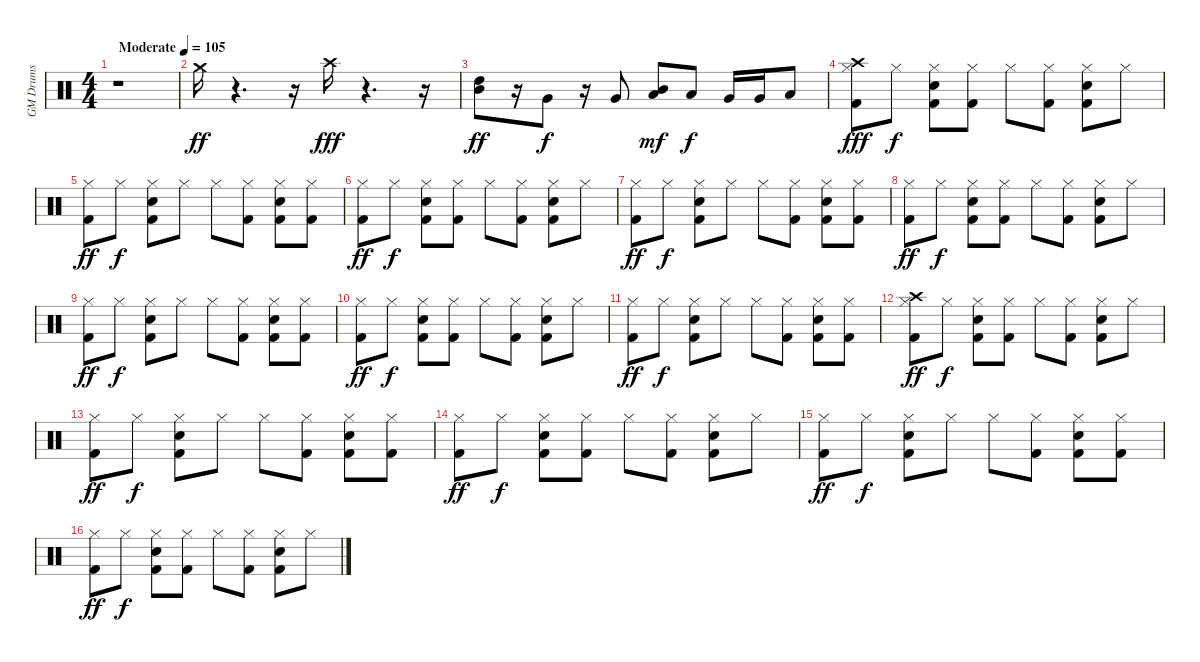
\track ("GM Drums" "GM Drums") {instrument percussion}
\staff {score}
\articulation defaults
\ts (4 4)
\tempo (105 "Moderate")
\clef neutral
\ks c
r.1{dy ff} |
"Crash medium (hit)".16 r.4{d} r.16 "Crash high (hit)".16{dy fff} r.4{d} r.16 |
("Mid Tom (hit)" "High Tom (hit)").8{dy ff} r.16 "Very Low Tom (hit)".8{dy f} r.16 "Very Low Tom (hit)".8 ("Low Tom (hit)" "Mid Tom (hit)").8{dy mf} "Low Tom (hit)".8{dy f} "Very Low Tom (hit)".16 "Very Low Tom (hit)".16 "Low Floor Tom (hit)".8 |
("Kick (hit) 2" "Hi-Hat (closed)" "Crash high (hit)").8{dy fff} "Hi-Hat (closed)".8{dy f} ("Kick (hit) 2" "Electric Snare (hit)" "Hi-Hat (closed)").8 ("Kick (hit) 2" "Hi-Hat (closed)").8 "Hi-Hat (closed)".8 ("Kick (hit) 2" "Hi-Hat (closed)").8 ("Kick (hit) 2" "Electric Snare (hit)" "Hi-Hat (closed)").8 "Hi-Hat (closed)".8 |
("Kick (hit) 2" "Hi-Hat (closed)").8{dy ff} "Hi-Hat (closed)".8{dy f} ("Kick (hit) 2" "Electric Snare (hit)" "Hi-Hat (closed)").8 "Hi-Hat (closed)".8 "Hi-Hat (closed)".8 ("Kick (hit) 2" "Hi-Hat (closed)").8 ("Kick (hit) 2" "Electric Snare (hit)" "Hi-Hat (closed)").8 ("Kick (hit) 2" "Hi-Hat (closed)").8 |
("Kick (hit) 2" "Hi-Hat (closed)").8{dy ff} "Hi-Hat (closed)".8{dy f} ("Kick (hit) 2" "Electric Snare (hit)" "Hi-Hat (closed)").8 ("Kick (hit) 2" "Hi-Hat (closed)").8 "Hi-Hat (closed)".8 ("Kick (hit) 2" "Hi-Hat (closed)").8 ("Kick (hit) 2" "Electric Snare (hit)" "Hi-Hat (closed)").8 "Hi-Hat (closed)".8 |
("Kick (hit) 2" "Hi-Hat (closed)").8{dy ff} "Hi-Hat (closed)".8{dy f} ("Kick (hit) 2" "Electric Snare (hit)" "Hi-Hat (closed)").8 "Hi-Hat (closed)".8 "Hi-Hat (closed)".8 ("Kick (hit) 2" "Hi-Hat (closed)").8 ("Kick (hit) 2" "Electric Snare (hit)" "Hi-Hat (closed)").8 ("Kick (hit) 2" "Hi-Hat (closed)").8 |
("Kick (hit) 2" "Hi-Hat (closed)").8{dy ff} "Hi-Hat (closed)".8{dy f} ("Kick (hit) 2" "Electric Snare (hit)" "Hi-Hat (closed)").8 ("Kick (hit) 2" "Hi-Hat (closed)").8 "Hi-Hat (closed)".8 ("Kick (hit) 2" "Hi-Hat (closed)").8 ("Kick (hit) 2" "Electric Snare (hit)" "Hi-Hat (closed)").8 "Hi-Hat (closed)".8 |
("Kick (hit) 2" "Hi-Hat (closed)").8{dy ff} "Hi-Hat (closed)".8{dy f} ("Kick (hit) 2" "Electric Snare (hit)" "Hi-Hat (closed)").8 "Hi-Hat (closed)".8 "Hi-Hat (closed)".8 ("Kick (hit) 2" "Hi-Hat (closed)").8 ("Kick (hit) 2" "Electric Snare (hit)" "Hi-Hat (closed)").8 ("Kick (hit) 2" "Hi-Hat (closed)").8 |
("Kick (hit) 2" "Hi-Hat (closed)").8{dy ff} "Hi-Hat (closed)".8{dy f} ("Kick (hit) 2" "Electric Snare (hit)" "Hi-Hat (closed)").8 ("Kick (hit) 2" "Hi-Hat (closed)").8 "Hi-Hat (closed)".8 ("Kick (hit) 2" "Hi-Hat (closed)").8 ("Kick (hit) 2" "Electric Snare (hit)" "Hi-Hat (closed)").8 "Hi-Hat (closed)".8 |
("Kick (hit) 2" "Hi-Hat (closed)").8{dy ff} "Hi-Hat (closed)".8{dy f} ("Kick (hit) 2" "Electric Snare (hit)" "Hi-Hat (closed)").8 "Hi-Hat (closed)".8 "Hi-Hat (closed)".8 ("Kick (hit) 2" "Hi-Hat (closed)").8 ("Kick (hit) 2" "Electric Snare (hit)" "Hi-Hat (closed)").8 ("Kick (hit) 2" "Hi-Hat (closed)").8 |
("Crash high (hit)" "Kick (hit) 2" "Hi-Hat (closed)").8{dy ff} "Hi-Hat (closed)".8{dy f} ("Kick (hit) 2" "Electric Snare (hit)" "Hi-Hat (closed)").8 ("Kick (hit) 2" "Hi-Hat (closed)").8 "Hi-Hat (closed)".8 ("Kick (hit) 2" "Hi-Hat (closed)").8 ("Kick (hit) 2" "Electric Snare (hit)" "Hi-Hat (closed)").8 "Hi-Hat (closed)".8 |
("Kick (hit) 2" "Hi-Hat (closed)").8{dy ff} "Hi-Hat (closed)".8{dy f} ("Kick (hit) 2" "Electric Snare (hit)" "Hi-Hat (closed)").8 "Hi-Hat (closed)".8 "Hi-Hat (closed)".8 ("Kick (hit) 2" "Hi-Hat (closed)").8 ("Kick (hit) 2" "Electric Snare (hit)" "Hi-Hat (closed)").8 ("Kick (hit) 2" "Hi-Hat (closed)").8 |
("Kick (hit) 2" "Hi-Hat (closed)").8{dy ff} "Hi-Hat (closed)".8{dy f} ("Kick (hit) 2" "Electric Snare (hit)" "Hi-Hat (closed)").8 ("Kick (hit) 2" "Hi-Hat (closed)").8 "Hi-Hat (closed)".8 ("Kick (hit) 2" "Hi-Hat (closed)").8 ("Kick (hit) 2" "Electric Snare (hit)" "Hi-Hat (closed)").8 "Hi-Hat (closed)".8 |
("Kick (hit) 2" "Hi-Hat (closed)").8{dy ff} "Hi-Hat (closed)".8{dy f} ("Kick (hit) 2" "Electric Snare (hit)" "Hi-Hat (closed)").8 "Hi-Hat (closed)".8 "Hi-Hat (closed)".8 ("Kick (hit) 2" "Hi-Hat (closed)").8 ("Kick (hit) 2" "Electric Snare (hit)" "Hi-Hat (closed)").8 ("Kick (hit) 2" "Hi-Hat (closed)").8 |
("Kick (hit) 2" "Hi-Hat (closed)").8{dy ff} "Hi-Hat (closed)".8{dy f} ("Kick (hit) 2" "Electric Snare (hit)" "Hi-Hat (closed)").8 ("Kick (hit) 2" "Hi-Hat (closed)").8 "Hi-Hat (closed)".8 ("Kick (hit) 2" "Hi-Hat (closed)").8 ("Kick (hit) 2" "Electric Snare (hit)" "Hi-Hat (closed)").8 "Hi-Hat (closed)".8
